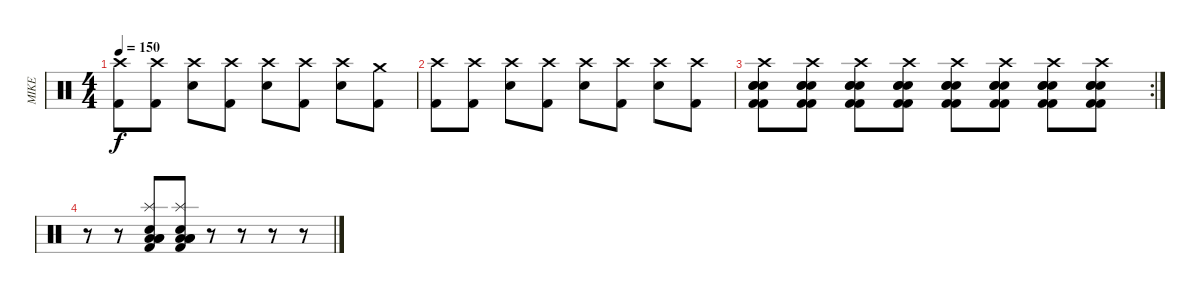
\track ("MIKE" "MIKE") {instrument percussion}
\staff {score}
\articulation defaults
\ts (4 4)
\tempo 150
\clef neutral
\ks c
("Crash high (hit)" "Kick (hit) 2").8{dy f} ("Crash high (hit)" "Kick (hit) 2").8 ("Crash high (hit)" "Snare (hit) 2").8 ("Crash high (hit)" "Kick (hit) 2").8 ("Crash high (hit)" "Snare (hit) 2").8 ("Crash high (hit)" "Kick (hit) 2").8 ("Crash high (hit)" "Snare (hit) 2").8 ("Crash medium (hit)" "Kick (hit) 2").8 |
("Crash high (hit)" "Kick (hit) 2").8 ("Crash high (hit)" "Kick (hit) 2").8 ("Crash high (hit)" "Snare (hit) 2").8 ("Crash high (hit)" "Kick (hit) 2").8 ("Crash high (hit)" "Snare (hit) 2").8 ("Crash high (hit)" "Kick (hit) 2").8 ("Crash high (hit)" "Snare (hit) 2").8 ("Crash high (hit)" "Kick (hit) 2").8 |
\rc 2
("Electric Snare (hit)" "Kick (hit) 2" "Electric Snare (hit)" "Kick (hit) 2" "Crash high (hit)" "Electric Snare (hit)").8 ("Electric Snare (hit)" "Kick (hit) 2" "Electric Snare (hit)" "Kick (hit) 2" "Crash high (hit)" "Electric Snare (hit)").8 ("Electric Snare (hit)" "Kick (hit) 2" "Electric Snare (hit)" "Kick (hit) 2" "Crash high (hit)" "Electric Snare (hit)").8 ("Electric Snare (hit)" "Kick (hit) 2" "Electric Snare (hit)" "Kick (hit) 2" "Crash high (hit)" "Electric Snare (hit)").8 ("Electric Snare (hit)" "Kick (hit) 2" "Electric Snare (hit)" "Kick (hit) 2" "Crash high (hit)" "Electric Snare (hit)").8 ("Electric Snare (hit)" "Kick (hit) 2" "Electric Snare (hit)" "Kick (hit) 2" "Crash high (hit)" "Electric Snare (hit)").8 ("Electric Snare (hit)" "Kick (hit) 2" "Electric Snare (hit)" "Kick (hit) 2" "Crash high (hit)" "Electric Snare (hit)").8 ("Electric Snare (hit)" "Kick (hit) 2" "Electric Snare (hit)" "Kick (hit) 2" "Crash high (hit)" "Electric Snare (hit)").8 |
r.8 r.8 ("Splash (hit)" "Low Floor Tom (hit)" "Low Floor Tom (hit)" "Kick (hit) 2" "Low Floor Tom (hit)" "Electric Snare (hit)").8 ("Splash (hit)" "Low Floor Tom (hit)" "Low Floor Tom (hit)" "Kick (hit) 2" "Low Floor Tom (hit)" "Electric Snare (hit)").8 r.8 r.8 r.8 r.8
